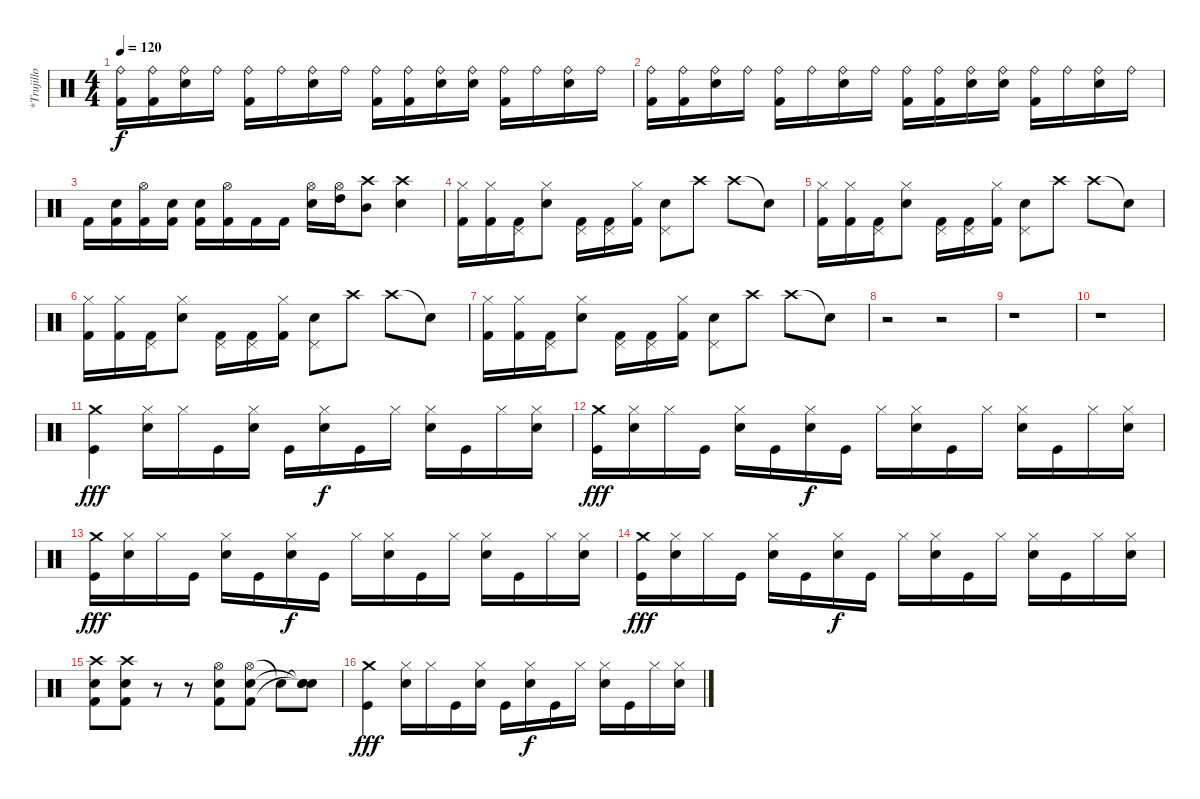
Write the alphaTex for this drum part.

\track ("*Trujillo" "*Trujillo") {instrument percussion}
\staff {score}
\articulation defaults
\ts (4 4)
\tempo 120
\clef neutral
\ks c
("Ride (bell)" "Kick (hit) 2").16{dy f} ("Ride (bell)" "Kick (hit) 2").16 ("Ride (bell)" "Electric Snare (hit)").16 "Ride (bell)".16 ("Ride (bell)" "Kick (hit) 2").16 "Ride (bell)".16 ("Ride (bell)" "Electric Snare (hit)").16 "Ride (bell)".16 ("Ride (bell)" "Kick (hit) 2").16 ("Ride (bell)" "Kick (hit) 2").16 ("Ride (bell)" "Electric Snare (hit)").16 ("Ride (bell)" "Electric Snare (hit)"{x}).16 ("Ride (bell)" "Kick (hit) 2").16 "Ride (bell)".16 ("Ride (bell)" "Electric Snare (hit)").16 "Ride (bell)".16 |
("Ride (bell)" "Kick (hit) 2").16 ("Ride (bell)" "Kick (hit) 2").16 ("Ride (bell)" "Electric Snare (hit)").16 "Ride (bell)".16 ("Ride (bell)" "Kick (hit) 2").16 "Ride (bell)".16 ("Ride (bell)" "Electric Snare (hit)").16 "Ride (bell)".16 ("Ride (bell)" "Kick (hit) 2").16 ("Ride (bell)" "Kick (hit) 2").16 ("Ride (bell)" "Electric Snare (hit)").16 ("Ride (bell)" "Electric Snare (hit)"{x}).16 ("Ride (bell)" "Kick (hit) 2").16 "Ride (bell)".16 ("Ride (bell)" "Electric Snare (hit)").16 "Ride (bell)".16 |
"Kick (hit) 2".16 ("Electric Snare (hit)" "Kick (hit) 2").16 ("Hi-Hat (open)" "Kick (hit) 2").16 ("Snare (hit)" "Kick (hit) 2").16 ("Electric Snare (hit)" "Kick (hit) 2").16 ("Hi-Hat (open)" "Kick (hit) 2").16 "Kick (hit) 2".16 "Kick (hit) 2".16 ("Hi-Hat (open)" "Electric Snare (hit)").16 ("Hi-Hat (open)" "High Tom (hit)").16 ("Crash high (hit)" "Mid Tom (hit)").8 ("Crash high (hit)" "Snare (hit)").4 |
("Hi-Hat (closed)" "Kick (hit) 2").16 ("Hi-Hat (closed)" "Kick (hit) 2").16 ("Pedal Hi-Hat (hit)" "Kick (hit) 2").16 ("Hi-Hat (closed)" "Electric Snare (hit)").8 ("Pedal Hi-Hat (hit)" "Kick (hit) 2").16 ("Pedal Hi-Hat (hit)" "Kick (hit) 2").16 ("Hi-Hat (closed)" "Kick (hit) 2").16 ("Pedal Hi-Hat (hit)" "Electric Snare (hit)").8 "Crash high (hit)".8 "Crash high (hit)".8 "Snare (hit)"{t}.8 |
("Hi-Hat (closed)" "Kick (hit) 2").16 ("Hi-Hat (closed)" "Kick (hit) 2").16 ("Pedal Hi-Hat (hit)" "Kick (hit) 2").16 ("Hi-Hat (closed)" "Electric Snare (hit)").8 ("Pedal Hi-Hat (hit)" "Kick (hit) 2").16 ("Pedal Hi-Hat (hit)" "Kick (hit) 2").16 ("Hi-Hat (closed)" "Kick (hit) 2").16 ("Pedal Hi-Hat (hit)" "Electric Snare (hit)").8 "Crash high (hit)".8 "Crash high (hit)".8 "Snare (hit)"{t}.8 |
("Hi-Hat (closed)" "Kick (hit) 2").16 ("Hi-Hat (closed)" "Kick (hit) 2").16 ("Pedal Hi-Hat (hit)" "Kick (hit) 2").16 ("Hi-Hat (closed)" "Electric Snare (hit)").8 ("Pedal Hi-Hat (hit)" "Kick (hit) 2").16 ("Pedal Hi-Hat (hit)" "Kick (hit) 2").16 ("Hi-Hat (closed)" "Kick (hit) 2").16 ("Pedal Hi-Hat (hit)" "Electric Snare (hit)").8 "Crash high (hit)".8 "Crash high (hit)".8 "Snare (hit)"{t}.8 |
("Hi-Hat (closed)" "Kick (hit) 2").16 ("Hi-Hat (closed)" "Kick (hit) 2").16 ("Pedal Hi-Hat (hit)" "Kick (hit) 2").16 ("Hi-Hat (closed)" "Electric Snare (hit)").8 ("Pedal Hi-Hat (hit)" "Kick (hit) 2").16 ("Pedal Hi-Hat (hit)" "Kick (hit) 2").16 ("Hi-Hat (closed)" "Kick (hit) 2").16 ("Pedal Hi-Hat (hit)" "Electric Snare (hit)").8 "Crash high (hit)".8 "Crash high (hit)".8 "Snare (hit)"{t}.8 |
r.2 r.2 |
r.1 |
r.1 |
("Kick (hit)" "Crash medium (hit)").4{dy fff} ("Snare (hit) 2" "Hi-Hat (closed)").16 "Hi-Hat (closed)".16 "Kick (hit)".16 ("Snare (hit) 2" "Hi-Hat (closed)").16 "Kick (hit)".16 ("Snare (hit) 2" "Hi-Hat (closed)").16{dy f} "Kick (hit)".16 "Hi-Hat (closed)".16 ("Snare (hit) 2" "Hi-Hat (closed)").16 "Kick (hit)".16 "Hi-Hat (closed)".16 ("Snare (hit) 2" "Hi-Hat (closed)").16 |
("Kick (hit)" "Crash medium (hit)").16{dy fff} ("Snare (hit) 2" "Hi-Hat (closed)").16 "Hi-Hat (closed)".16 "Kick (hit)".16 ("Snare (hit) 2" "Hi-Hat (closed)").16 "Kick (hit)".16 ("Snare (hit) 2" "Hi-Hat (closed)").16{dy f} "Kick (hit)".16 "Hi-Hat (closed)".16 ("Snare (hit) 2" "Hi-Hat (closed)").16 "Kick (hit)".16 "Hi-Hat (closed)".16 ("Snare (hit) 2" "Hi-Hat (closed)").16 "Kick (hit)".16 "Hi-Hat (closed)".16 ("Snare (hit) 2" "Hi-Hat (closed)").16 |
("Kick (hit)" "Crash medium (hit)").16{dy fff} ("Snare (hit) 2" "Hi-Hat (closed)").16 "Hi-Hat (closed)".16 "Kick (hit)".16 ("Snare (hit) 2" "Hi-Hat (closed)").16 "Kick (hit)".16 ("Snare (hit) 2" "Hi-Hat (closed)").16{dy f} "Kick (hit)".16 "Hi-Hat (closed)".16 ("Snare (hit) 2" "Hi-Hat (closed)").16 "Kick (hit)".16 "Hi-Hat (closed)".16 ("Snare (hit) 2" "Hi-Hat (closed)").16 "Kick (hit)".16 "Hi-Hat (closed)".16 ("Snare (hit) 2" "Hi-Hat (closed)").16 |
("Kick (hit)" "Crash medium (hit)").16{dy fff} ("Snare (hit) 2" "Hi-Hat (closed)").16 "Hi-Hat (closed)".16 "Kick (hit)".16 ("Snare (hit) 2" "Hi-Hat (closed)").16 "Kick (hit)".16 ("Snare (hit) 2" "Hi-Hat (closed)").16{dy f} "Kick (hit)".16 "Hi-Hat (closed)".16 ("Snare (hit) 2" "Hi-Hat (closed)").16 "Kick (hit)".16 "Hi-Hat (closed)".16 ("Snare (hit) 2" "Hi-Hat (closed)").16 "Kick (hit)".16 "Hi-Hat (closed)".16 ("Snare (hit) 2" "Hi-Hat (closed)").16 |
("Crash high (hit)" "Electric Snare (hit)" "Kick (hit) 2").8 ("Crash high (hit)" "Electric Snare (hit)" "Kick (hit) 2").8 r.8 r.8 ("Hi-Hat (open)" "Electric Snare (hit)" "Kick (hit) 2").8 ("Hi-Hat (open)" "Electric Snare (hit)" "Kick (hit) 2").8 "Snare (hit)"{t}.8 ("Snare (hit)"{t} "Snare (hit)"{t} "Snare (hit)"{t}).8 |
("Kick (hit)" "Crash medium (hit)").4{dy fff} ("Snare (hit) 2" "Hi-Hat (closed)").16 "Hi-Hat (closed)".16 "Kick (hit)".16 ("Snare (hit) 2" "Hi-Hat (closed)").16 "Kick (hit)".16 ("Snare (hit) 2" "Hi-Hat (closed)").16{dy f} "Kick (hit)".16 "Hi-Hat (closed)".16 ("Snare (hit) 2" "Hi-Hat (closed)").16 "Kick (hit)".16 "Hi-Hat (closed)".16 ("Snare (hit) 2" "Hi-Hat (closed)").16
